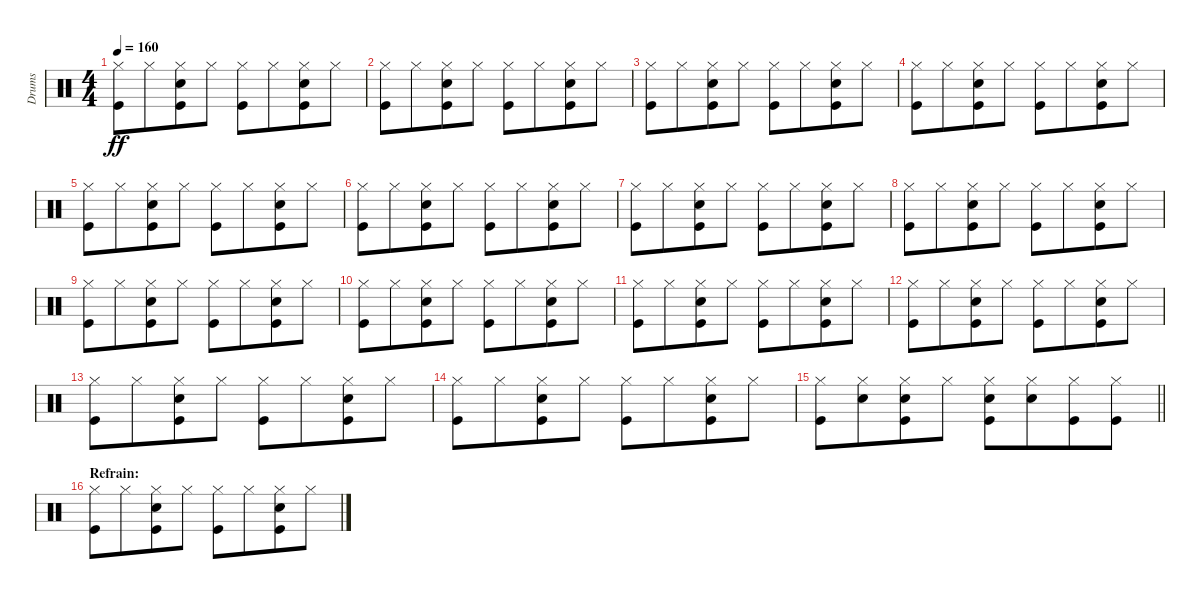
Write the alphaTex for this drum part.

\track ("Drums" "Drums") {instrument percussion}
\staff {score}
\articulation defaults
\ts (4 4)
\tempo 160
\clef neutral
\ks c
("Hi-Hat (closed)" "Kick (hit)").8{dy ff} "Hi-Hat (closed)".8{beam merge} ("Hi-Hat (closed)" "Snare (hit) 2" "Kick (hit)").8 "Hi-Hat (closed)".8 ("Hi-Hat (closed)" "Kick (hit)").8 "Hi-Hat (closed)".8{beam merge} ("Hi-Hat (closed)" "Snare (hit) 2" "Kick (hit)").8 "Hi-Hat (closed)".8 |
("Hi-Hat (closed)" "Kick (hit)").8 "Hi-Hat (closed)".8{beam merge} ("Hi-Hat (closed)" "Snare (hit) 2" "Kick (hit)").8 "Hi-Hat (closed)".8 ("Hi-Hat (closed)" "Kick (hit)").8 "Hi-Hat (closed)".8{beam merge} ("Hi-Hat (closed)" "Snare (hit) 2" "Kick (hit)").8 "Hi-Hat (closed)".8 |
("Hi-Hat (closed)" "Kick (hit)").8 "Hi-Hat (closed)".8{beam merge} ("Hi-Hat (closed)" "Snare (hit) 2" "Kick (hit)").8 "Hi-Hat (closed)".8 ("Hi-Hat (closed)" "Kick (hit)").8 "Hi-Hat (closed)".8{beam merge} ("Hi-Hat (closed)" "Snare (hit) 2" "Kick (hit)").8 "Hi-Hat (closed)".8 |
("Hi-Hat (closed)" "Kick (hit)").8 "Hi-Hat (closed)".8{beam merge} ("Hi-Hat (closed)" "Snare (hit) 2" "Kick (hit)").8 "Hi-Hat (closed)".8 ("Hi-Hat (closed)" "Kick (hit)").8 "Hi-Hat (closed)".8{beam merge} ("Hi-Hat (closed)" "Snare (hit) 2" "Kick (hit)").8 "Hi-Hat (closed)".8 |
("Hi-Hat (closed)" "Kick (hit)").8 "Hi-Hat (closed)".8{beam merge} ("Hi-Hat (closed)" "Snare (hit) 2" "Kick (hit)").8 "Hi-Hat (closed)".8 ("Hi-Hat (closed)" "Kick (hit)").8 "Hi-Hat (closed)".8{beam merge} ("Hi-Hat (closed)" "Snare (hit) 2" "Kick (hit)").8 "Hi-Hat (closed)".8 |
("Hi-Hat (closed)" "Kick (hit)").8 "Hi-Hat (closed)".8{beam merge} ("Hi-Hat (closed)" "Snare (hit) 2" "Kick (hit)").8 "Hi-Hat (closed)".8 ("Hi-Hat (closed)" "Kick (hit)").8 "Hi-Hat (closed)".8{beam merge} ("Hi-Hat (closed)" "Snare (hit) 2" "Kick (hit)").8 "Hi-Hat (closed)".8 |
("Hi-Hat (closed)" "Kick (hit)").8 "Hi-Hat (closed)".8{beam merge} ("Hi-Hat (closed)" "Snare (hit) 2" "Kick (hit)").8 "Hi-Hat (closed)".8 ("Hi-Hat (closed)" "Kick (hit)").8 "Hi-Hat (closed)".8{beam merge} ("Hi-Hat (closed)" "Snare (hit) 2" "Kick (hit)").8 "Hi-Hat (closed)".8 |
("Hi-Hat (closed)" "Kick (hit)").8 "Hi-Hat (closed)".8{beam merge} ("Hi-Hat (closed)" "Snare (hit) 2" "Kick (hit)").8 "Hi-Hat (closed)".8 ("Hi-Hat (closed)" "Kick (hit)").8 "Hi-Hat (closed)".8{beam merge} ("Hi-Hat (closed)" "Snare (hit) 2" "Kick (hit)").8 "Hi-Hat (closed)".8 |
("Hi-Hat (closed)" "Kick (hit)").8 "Hi-Hat (closed)".8{beam merge} ("Hi-Hat (closed)" "Snare (hit) 2" "Kick (hit)").8 "Hi-Hat (closed)".8 ("Hi-Hat (closed)" "Kick (hit)").8 "Hi-Hat (closed)".8{beam merge} ("Hi-Hat (closed)" "Snare (hit) 2" "Kick (hit)").8 "Hi-Hat (closed)".8 |
("Hi-Hat (closed)" "Kick (hit)").8 "Hi-Hat (closed)".8{beam merge} ("Hi-Hat (closed)" "Snare (hit) 2" "Kick (hit)").8 "Hi-Hat (closed)".8 ("Hi-Hat (closed)" "Kick (hit)").8 "Hi-Hat (closed)".8{beam merge} ("Hi-Hat (closed)" "Snare (hit) 2" "Kick (hit)").8 "Hi-Hat (closed)".8 |
("Hi-Hat (closed)" "Kick (hit)").8 "Hi-Hat (closed)".8{beam merge} ("Hi-Hat (closed)" "Snare (hit) 2" "Kick (hit)").8 "Hi-Hat (closed)".8 ("Hi-Hat (closed)" "Kick (hit)").8 "Hi-Hat (closed)".8{beam merge} ("Hi-Hat (closed)" "Snare (hit) 2" "Kick (hit)").8 "Hi-Hat (closed)".8 |
("Hi-Hat (closed)" "Kick (hit)").8 "Hi-Hat (closed)".8{beam merge} ("Hi-Hat (closed)" "Snare (hit) 2" "Kick (hit)").8 "Hi-Hat (closed)".8 ("Hi-Hat (closed)" "Kick (hit)").8 "Hi-Hat (closed)".8{beam merge} ("Hi-Hat (closed)" "Snare (hit) 2" "Kick (hit)").8 "Hi-Hat (closed)".8 |
("Hi-Hat (closed)" "Kick (hit)").8 "Hi-Hat (closed)".8{beam merge} ("Hi-Hat (closed)" "Snare (hit) 2" "Kick (hit)").8 "Hi-Hat (closed)".8 ("Hi-Hat (closed)" "Kick (hit)").8 "Hi-Hat (closed)".8{beam merge} ("Hi-Hat (closed)" "Snare (hit) 2" "Kick (hit)").8 "Hi-Hat (closed)".8 |
("Hi-Hat (closed)" "Kick (hit)").8 "Hi-Hat (closed)".8{beam merge} ("Hi-Hat (closed)" "Snare (hit) 2" "Kick (hit)").8 "Hi-Hat (closed)".8 ("Hi-Hat (closed)" "Kick (hit)").8 "Hi-Hat (closed)".8{beam merge} ("Hi-Hat (closed)" "Snare (hit) 2" "Kick (hit)").8 "Hi-Hat (closed)".8 |
\barLineRight lightlight
("Hi-Hat (closed)" "Kick (hit)").8 ("Hi-Hat (closed)" "Snare (hit) 2").8{beam merge} ("Hi-Hat (closed)" "Snare (hit) 2" "Kick (hit)").8 "Hi-Hat (closed)".8 ("Hi-Hat (closed)" "Snare (hit) 2" "Kick (hit)").8 ("Hi-Hat (closed)" "Snare (hit) 2").8{beam merge} ("Hi-Hat (closed)" "Kick (hit)").8 ("Hi-Hat (closed)" "Kick (hit)").8 |
\section ("" "Refrain:")
("Hi-Hat (closed)" "Kick (hit)").8 "Hi-Hat (closed)".8{beam merge} ("Hi-Hat (closed)" "Snare (hit) 2" "Kick (hit)").8 "Hi-Hat (closed)".8 ("Hi-Hat (closed)" "Kick (hit)").8 "Hi-Hat (closed)".8{beam merge} ("Hi-Hat (closed)" "Snare (hit) 2" "Kick (hit)").8 "Hi-Hat (closed)".8
